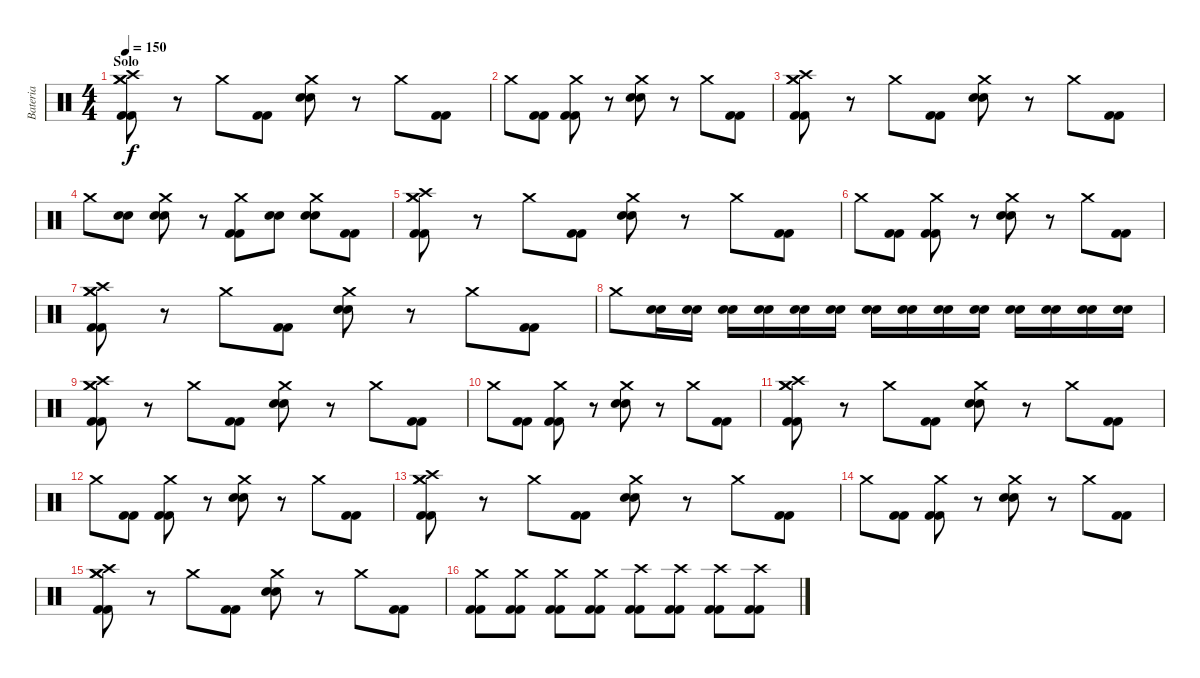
\track ("Bateria" "Bateria") {instrument percussion}
\staff {score}
\articulation defaults
\ts (4 4)
\section ("" "Solo")
\tempo 150
\clef neutral
\ks c
("Crash medium (hit)" "Crash high (hit)" "Crash medium (hit)" "Kick (hit) 2" "Kick (hit) 2").8{dy f} r.8 "Crash medium (hit)".8 ("Kick (hit) 2" "Kick (hit) 2").8 ("Crash medium (hit)" "Electric Snare (hit)" "Electric Snare (hit)").8 r.8 "Crash medium (hit)".8 ("Kick (hit) 2" "Kick (hit) 2").8 |
"Crash medium (hit)".8 ("Kick (hit) 2" "Kick (hit) 2").8 ("Crash medium (hit)" "Kick (hit) 2" "Kick (hit) 2").8 r.8 ("Crash medium (hit)" "Electric Snare (hit)" "Electric Snare (hit)").8 r.8 "Crash medium (hit)".8 ("Kick (hit) 2" "Kick (hit) 2").8 |
("Crash medium (hit)" "Crash high (hit)" "Crash medium (hit)" "Kick (hit) 2" "Kick (hit) 2").8 r.8 "Crash medium (hit)".8 ("Kick (hit) 2" "Kick (hit) 2").8 ("Crash medium (hit)" "Electric Snare (hit)" "Electric Snare (hit)").8 r.8 "Crash medium (hit)".8 ("Kick (hit) 2" "Kick (hit) 2").8 |
"Crash medium (hit)".8 ("Electric Snare (hit)" "Electric Snare (hit)").8 ("Crash medium (hit)" "Electric Snare (hit)" "Electric Snare (hit)").8 r.8 ("Crash medium (hit)" "Kick (hit) 2" "Kick (hit) 2").8 ("Electric Snare (hit)" "Electric Snare (hit)").8 ("Crash medium (hit)" "Electric Snare (hit)" "Electric Snare (hit)").8 ("Kick (hit) 2" "Kick (hit) 2").8 |
("Crash medium (hit)" "Crash high (hit)" "Crash medium (hit)" "Kick (hit) 2" "Kick (hit) 2").8 r.8 "Crash medium (hit)".8 ("Kick (hit) 2" "Kick (hit) 2").8 ("Crash medium (hit)" "Electric Snare (hit)" "Electric Snare (hit)").8 r.8 "Crash medium (hit)".8 ("Kick (hit) 2" "Kick (hit) 2").8 |
"Crash medium (hit)".8 ("Kick (hit) 2" "Kick (hit) 2").8 ("Crash medium (hit)" "Kick (hit) 2" "Kick (hit) 2").8 r.8 ("Crash medium (hit)" "Electric Snare (hit)" "Electric Snare (hit)").8 r.8 "Crash medium (hit)".8 ("Kick (hit) 2" "Kick (hit) 2").8 |
("Crash medium (hit)" "Crash high (hit)" "Crash medium (hit)" "Kick (hit) 2" "Kick (hit) 2").8 r.8 "Crash medium (hit)".8 ("Kick (hit) 2" "Kick (hit) 2").8 ("Crash medium (hit)" "Electric Snare (hit)" "Electric Snare (hit)").8 r.8 "Crash medium (hit)".8 ("Kick (hit) 2" "Kick (hit) 2").8 |
"Crash medium (hit)".8 ("Electric Snare (hit)" "Electric Snare (hit)").16 ("Electric Snare (hit)" "Electric Snare (hit)").16 ("Electric Snare (hit)" "Electric Snare (hit)").16 ("Electric Snare (hit)" "Electric Snare (hit)").16 ("Electric Snare (hit)" "Electric Snare (hit)").16 ("Electric Snare (hit)" "Electric Snare (hit)").16 ("Electric Snare (hit)" "Electric Snare (hit)").16 ("Electric Snare (hit)" "Electric Snare (hit)").16 ("Electric Snare (hit)" "Electric Snare (hit)").16 ("Electric Snare (hit)" "Electric Snare (hit)").16 ("Electric Snare (hit)" "Electric Snare (hit)").16 ("Electric Snare (hit)" "Electric Snare (hit)").16 ("Electric Snare (hit)" "Electric Snare (hit)").16 ("Electric Snare (hit)" "Electric Snare (hit)").16 |
("Crash medium (hit)" "Crash high (hit)" "Crash medium (hit)" "Kick (hit) 2" "Kick (hit) 2").8 r.8 "Crash medium (hit)".8 ("Kick (hit) 2" "Kick (hit) 2").8 ("Crash medium (hit)" "Electric Snare (hit)" "Electric Snare (hit)").8 r.8 "Crash medium (hit)".8 ("Kick (hit) 2" "Kick (hit) 2").8 |
"Crash medium (hit)".8 ("Kick (hit) 2" "Kick (hit) 2").8 ("Crash medium (hit)" "Kick (hit) 2" "Kick (hit) 2").8 r.8 ("Crash medium (hit)" "Electric Snare (hit)" "Electric Snare (hit)").8 r.8 "Crash medium (hit)".8 ("Kick (hit) 2" "Kick (hit) 2").8 |
("Crash medium (hit)" "Crash high (hit)" "Crash medium (hit)" "Kick (hit) 2" "Kick (hit) 2").8 r.8 "Crash medium (hit)".8 ("Kick (hit) 2" "Kick (hit) 2").8 ("Crash medium (hit)" "Electric Snare (hit)" "Electric Snare (hit)").8 r.8 "Crash medium (hit)".8 ("Kick (hit) 2" "Kick (hit) 2").8 |
"Crash medium (hit)".8 ("Kick (hit) 2" "Kick (hit) 2").8 ("Crash medium (hit)" "Kick (hit) 2" "Kick (hit) 2").8 r.8 ("Crash medium (hit)" "Electric Snare (hit)" "Electric Snare (hit)").8 r.8 "Crash medium (hit)".8 ("Kick (hit) 2" "Kick (hit) 2").8 |
("Crash medium (hit)" "Crash high (hit)" "Crash medium (hit)" "Kick (hit) 2" "Kick (hit) 2").8 r.8 "Crash medium (hit)".8 ("Kick (hit) 2" "Kick (hit) 2").8 ("Crash medium (hit)" "Electric Snare (hit)" "Electric Snare (hit)").8 r.8 "Crash medium (hit)".8 ("Kick (hit) 2" "Kick (hit) 2").8 |
"Crash medium (hit)".8 ("Kick (hit) 2" "Kick (hit) 2").8 ("Crash medium (hit)" "Kick (hit) 2" "Kick (hit) 2").8 r.8 ("Crash medium (hit)" "Electric Snare (hit)" "Electric Snare (hit)").8 r.8 "Crash medium (hit)".8 ("Kick (hit) 2" "Kick (hit) 2").8 |
("Crash medium (hit)" "Crash high (hit)" "Crash medium (hit)" "Kick (hit) 2" "Kick (hit) 2").8 r.8 "Crash medium (hit)".8 ("Kick (hit) 2" "Kick (hit) 2").8 ("Crash medium (hit)" "Electric Snare (hit)" "Electric Snare (hit)").8 r.8 "Crash medium (hit)".8 ("Kick (hit) 2" "Kick (hit) 2").8 |
("Crash medium (hit)" "Kick (hit) 2" "Kick (hit) 2").8 ("Crash medium (hit)" "Kick (hit) 2" "Kick (hit) 2").8 ("Crash medium (hit)" "Kick (hit) 2" "Kick (hit) 2").8 ("Crash medium (hit)" "Kick (hit) 2" "Kick (hit) 2").8 ("Crash high (hit)" "Kick (hit) 2" "Kick (hit) 2").8 ("Crash high (hit)" "Kick (hit) 2" "Kick (hit) 2").8 ("Crash high (hit)" "Kick (hit) 2" "Kick (hit) 2").8 ("Crash high (hit)" "Kick (hit) 2" "Kick (hit) 2").8
